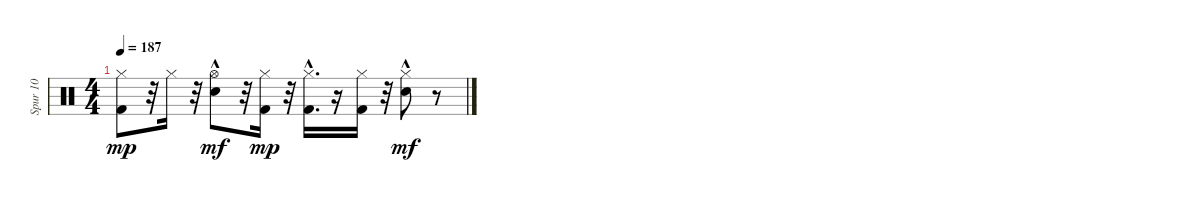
\track ("Spur 10" "Spur 10") {instrument percussion}
\staff {score}
\articulation defaults
\ts (4 4)
\tempo 187
\clef neutral
\ks c
("Kick (hit) 2" "Hi-Hat (closed)").8{dy mp} r.32 "Hi-Hat (closed)".16 r.32 ("Electric Snare (hit)"{hac} "Hi-Hat (open)").8{dy mf} r.32 ("Kick (hit) 2" "Hi-Hat (closed)").16{dy mp} r.32 ("Kick (hit) 2"{hac} "Hi-Hat (closed)").16{d} r.16 ("Kick (hit) 2" "Hi-Hat (closed)").16 r.32 ("Electric Snare (hit)"{hac} "Hi-Hat (closed)").8{dy mf} r.8
